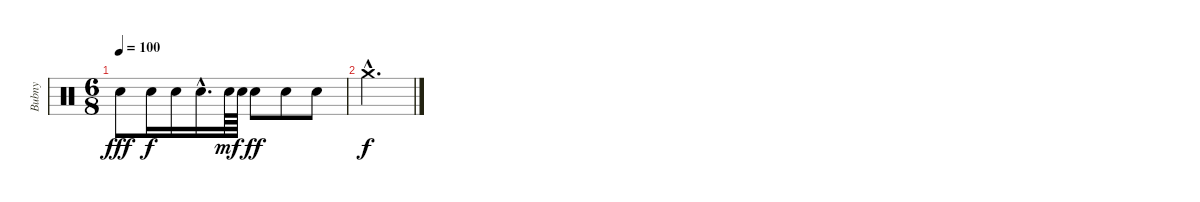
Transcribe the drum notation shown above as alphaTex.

\track ("Bubny" "Bubny") {instrument percussion}
\staff {score}
\articulation defaults
\ts (6 8)
\tempo 100
\clef neutral
\ks c "Electric Snare (hit)".8{dy fff} "Electric Snare (hit)".16{dy f} "Electric Snare (hit)".16 "Electric Snare (hit)"{hac}.16{d} "Electric Snare (hit)".64{dy mf} "Electric Snare (hit)".64 "Electric Snare (hit)".8{dy ff} "Electric Snare (hit)".8 "Electric Snare (hit)".8
|
"Crash medium (hit)"{hac}.2{d dy f}
